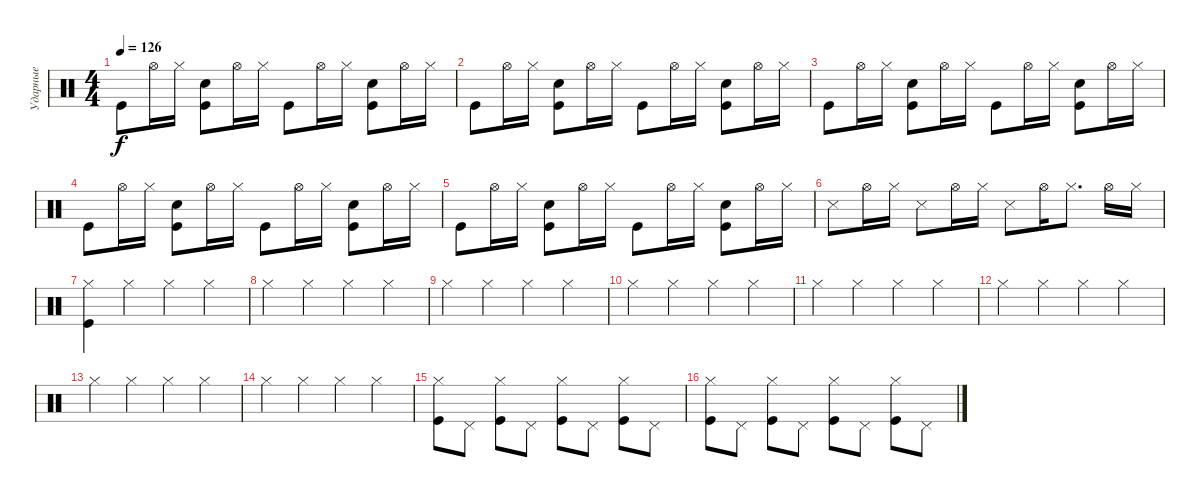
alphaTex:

\track ("Ударные" "Ударные") {instrument percussion}
\staff {score}
\articulation defaults
\ts (4 4)
\tempo 126
\clef neutral
\ks c "Kick (hit)".8{dy f} "Hi-Hat (open)".16 "Hi-Hat (closed)".16
("Kick (hit)" "Snare (hit) 2").8 "Hi-Hat (open)".16 "Hi-Hat (closed)".16 "Kick (hit)".8 "Hi-Hat (open)".16 "Hi-Hat (closed)".16 ("Kick (hit)" "Snare (hit) 2").8 "Hi-Hat (open)".16 "Hi-Hat (closed)".16 |
"Kick (hit)".8 "Hi-Hat (open)".16 "Hi-Hat (closed)".16 ("Kick (hit)" "Snare (hit) 2").8 "Hi-Hat (open)".16 "Hi-Hat (closed)".16 "Kick (hit)".8 "Hi-Hat (open)".16 "Hi-Hat (closed)".16 ("Kick (hit)" "Snare (hit) 2").8 "Hi-Hat (open)".16 "Hi-Hat (closed)".16 |
"Kick (hit)".8 "Hi-Hat (open)".16 "Hi-Hat (closed)".16 ("Kick (hit)" "Snare (hit) 2").8 "Hi-Hat (open)".16 "Hi-Hat (closed)".16 "Kick (hit)".8 "Hi-Hat (open)".16 "Hi-Hat (closed)".16 ("Kick (hit)" "Snare (hit) 2").8 "Hi-Hat (open)".16 "Hi-Hat (closed)".16 |
"Kick (hit)".8 "Hi-Hat (open)".16 "Hi-Hat (closed)".16 ("Kick (hit)" "Snare (hit) 2").8 "Hi-Hat (open)".16 "Hi-Hat (closed)".16 "Kick (hit)".8 "Hi-Hat (open)".16 "Hi-Hat (closed)".16 ("Kick (hit)" "Snare (hit) 2").8 "Hi-Hat (open)".16 "Hi-Hat (closed)".16 |
"Kick (hit)".8 "Hi-Hat (open)".16 "Hi-Hat (closed)".16 ("Kick (hit)" "Snare (hit) 2").8 "Hi-Hat (open)".16 "Hi-Hat (closed)".16 "Kick (hit)".8 "Hi-Hat (open)".16 "Hi-Hat (closed)".16 ("Kick (hit)" "Snare (hit) 2").8 "Hi-Hat (open)".16 "Hi-Hat (closed)".16 |
"Snare (side stick) 3".8 "Hi-Hat (open)".16 "Hi-Hat (closed)".16 "Snare (side stick) 3".8 "Hi-Hat (open)".16 "Hi-Hat (closed)".16 "Snare (side stick) 3".8 "Hi-Hat (open)".16 "Hi-Hat (closed)".8{d} "Hi-Hat (open)".16 "Hi-Hat (closed)".16 |
("Kick (hit)" "Hi-Hat (closed)").4 "Hi-Hat (closed)".4 "Hi-Hat (closed)".4 "Hi-Hat (closed)".4 |
"Hi-Hat (closed)".4 "Hi-Hat (closed)".4 "Hi-Hat (closed)".4 "Hi-Hat (closed)".4 |
"Hi-Hat (closed)".4 "Hi-Hat (closed)".4 "Hi-Hat (closed)".4 "Hi-Hat (closed)".4 |
"Hi-Hat (closed)".4 "Hi-Hat (closed)".4 "Hi-Hat (closed)".4 "Hi-Hat (closed)".4 |
"Hi-Hat (closed)".4 "Hi-Hat (closed)".4 "Hi-Hat (closed)".4 "Hi-Hat (closed)".4 |
"Hi-Hat (closed)".4 "Hi-Hat (closed)".4 "Hi-Hat (closed)".4 "Hi-Hat (closed)".4 |
"Hi-Hat (closed)".4 "Hi-Hat (closed)".4 "Hi-Hat (closed)".4 "Hi-Hat (closed)".4 |
"Hi-Hat (closed)".4 "Hi-Hat (closed)".4 "Hi-Hat (closed)".4 "Hi-Hat (closed)".4 |
("Hi-Hat (closed)" "Kick (hit)").8 "Pedal Hi-Hat (hit)".8 ("Hi-Hat (closed)" "Kick (hit)").8 "Pedal Hi-Hat (hit)".8 ("Hi-Hat (closed)" "Kick (hit)").8 "Pedal Hi-Hat (hit)".8 ("Hi-Hat (closed)" "Kick (hit)").8 "Pedal Hi-Hat (hit)".8 |
("Hi-Hat (closed)" "Kick (hit)").8 "Pedal Hi-Hat (hit)".8 ("Hi-Hat (closed)" "Kick (hit)").8 "Pedal Hi-Hat (hit)".8 ("Hi-Hat (closed)" "Kick (hit)").8 "Pedal Hi-Hat (hit)".8 ("Hi-Hat (closed)" "Kick (hit)").8 "Pedal Hi-Hat (hit)".8
